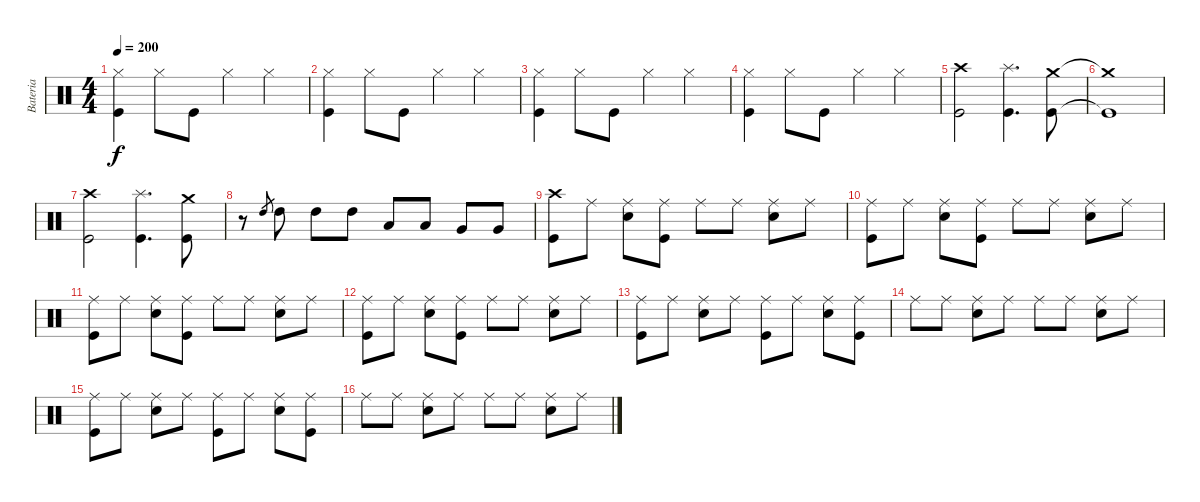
\track ("Bateria" "Bateria") {instrument percussion}
\staff {score}
\articulation defaults
\ts (4 4)
\tempo 200
\clef neutral
\ks c
("Hi-Hat (closed)" "Kick (hit)").4{dy f} "Hi-Hat (closed)".8 "Kick (hit)".8 "Hi-Hat (closed)".4 "Hi-Hat (closed)".4 |
("Hi-Hat (closed)" "Kick (hit)").4 "Hi-Hat (closed)".8 "Kick (hit)".8 "Hi-Hat (closed)".4 "Hi-Hat (closed)".4 |
("Hi-Hat (closed)" "Kick (hit)").4 "Hi-Hat (closed)".8 "Kick (hit)".8 "Hi-Hat (closed)".4 "Hi-Hat (closed)".4 |
("Hi-Hat (closed)" "Kick (hit)").4 "Hi-Hat (closed)".8 "Kick (hit)".8 "Hi-Hat (closed)".4 "Hi-Hat (closed)".4 |
("Crash high (hit)" "Kick (hit)").2 ("Splash (hit)" "Kick (hit)").4{d} ("Crash medium (hit)" "Kick (hit)").8 |
("Crash medium (hit)"{t} "Kick (hit)"{t}).1 |
("Crash high (hit)" "Kick (hit)").2 ("Splash (hit)" "Kick (hit)").4{d} ("Crash medium (hit)" "Kick (hit)").8 |
r.8 "High Tom (hit)".8{gr} "High Tom (hit)".8 "High Tom (hit)".8 "High Tom (hit)".8 "Low Tom (hit)".8 "Low Tom (hit)".8 "Very Low Tom (hit)".8 "Very Low Tom (hit)".8 |
("Crash high (hit)" "Kick (hit)").8 "Ride (middle)".8 ("Ride (middle)" "Snare (hit) 2").8 ("Ride (middle)" "Kick (hit)").8 "Ride (middle)".8 "Ride (middle)".8 ("Ride (middle)" "Snare (hit) 2").8 "Ride (middle)".8 |
("Ride (middle)" "Kick (hit)").8 "Ride (middle)".8 ("Ride (middle)" "Snare (hit) 2").8 ("Ride (middle)" "Kick (hit)").8 "Ride (middle)".8 "Ride (middle)".8 ("Ride (middle)" "Snare (hit) 2").8 "Ride (middle)".8 |
("Ride (middle)" "Kick (hit)").8 "Ride (middle)".8 ("Ride (middle)" "Snare (hit) 2").8 ("Ride (middle)" "Kick (hit)").8 "Ride (middle)".8 "Ride (middle)".8 ("Ride (middle)" "Snare (hit) 2").8 "Ride (middle)".8 |
("Ride (middle)" "Kick (hit)").8 "Ride (middle)".8 ("Ride (middle)" "Snare (hit) 2").8 ("Ride (middle)" "Kick (hit)").8 "Ride (middle)".8 "Ride (middle)".8 ("Ride (middle)" "Snare (hit) 2").8 "Ride (middle)".8 |
("Ride (middle)" "Kick (hit)").8 "Ride (middle)".8 ("Ride (middle)" "Snare (hit) 2").8 "Ride (middle)".8 ("Ride (middle)" "Kick (hit)").8 "Ride (middle)".8 ("Ride (middle)" "Snare (hit) 2").8 ("Ride (middle)" "Kick (hit)").8 |
"Ride (middle)".8 "Ride (middle)".8 ("Ride (middle)" "Snare (hit) 2").8 "Ride (middle)".8 "Ride (middle)".8 "Ride (middle)".8 ("Ride (middle)" "Snare (hit) 2").8 "Ride (middle)".8 |
("Ride (middle)" "Kick (hit)").8 "Ride (middle)".8 ("Ride (middle)" "Snare (hit) 2").8 "Ride (middle)".8 ("Ride (middle)" "Kick (hit)").8 "Ride (middle)".8 ("Ride (middle)" "Snare (hit) 2").8 ("Ride (middle)" "Kick (hit)").8 |
"Ride (middle)".8 "Ride (middle)".8 ("Ride (middle)" "Snare (hit) 2").8 "Ride (middle)".8 "Ride (middle)".8 "Ride (middle)".8 ("Ride (middle)" "Snare (hit) 2").8 "Ride (middle)".8
